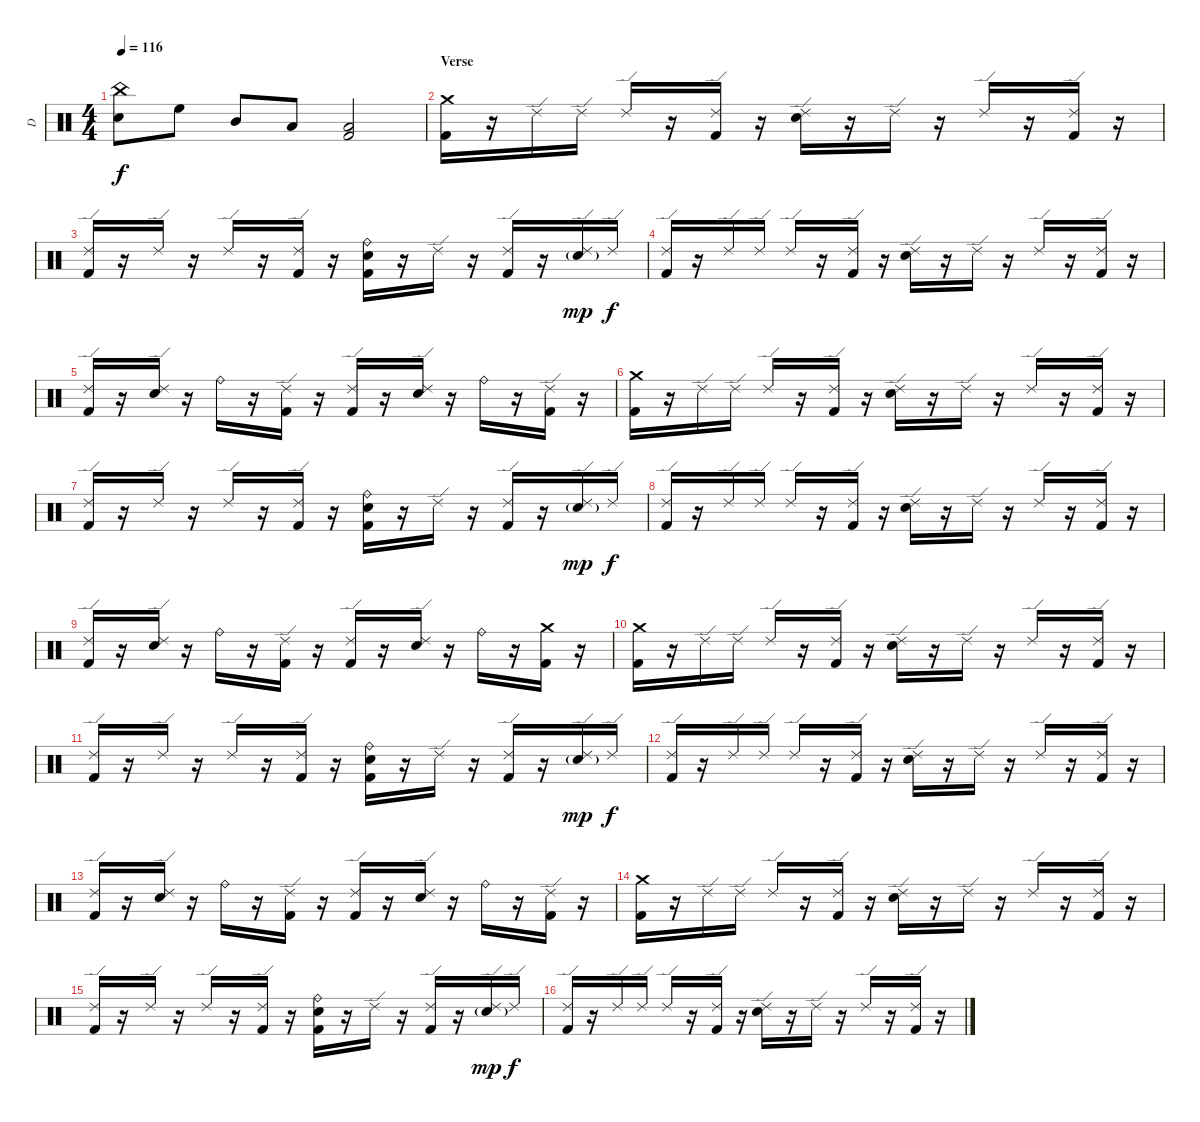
\track ("D" "D") {instrument percussion}
\staff {score}
\articulation defaults
\ts (4 4)
\tempo 116
\clef neutral
\ks c
("China (hit)" "Electric Snare (hit)").8{dy f} "High Floor Tom (hit)".8 "Mid Tom (hit)".8 "Low Tom (hit)".8 ("Low Floor Tom (hit)" "Kick (hit) 2").2 |
\section ("" "Verse")
("Crash medium (hit)" "Kick (hit) 2").16 r.16 "Ride (edge) 2".16 "Ride (edge) 2".16 "Ride (edge) 2".16 r.16 ("Ride (edge) 2" "Kick (hit) 2").16 r.16 ("Ride (edge) 2" "Electric Snare (hit)").16 r.16 "Ride (edge) 2".16 r.16 "Ride (edge) 2".16 r.16 ("Ride (edge) 2" "Kick (hit) 2").16 r.16 |
("Ride (edge) 2" "Kick (hit) 2").16 r.16 "Ride (edge) 2".16 r.16 "Ride (edge) 2".16 r.16 ("Ride (edge) 2" "Kick (hit) 2").16 r.16 ("Ride (bell)" "Electric Snare (hit)" "Kick (hit) 2").16 r.16 "Ride (edge) 2".16 r.16 ("Ride (edge) 2" "Kick (hit) 2").16 r.16 ("Ride (edge) 2" "Electric Snare (hit)"{g}).16{dy mp} "Ride (edge) 2".16{dy f} |
("Ride (edge) 2" "Kick (hit) 2").16 r.16 "Ride (edge) 2".16 "Ride (edge) 2".16 "Ride (edge) 2".16 r.16 ("Ride (edge) 2" "Kick (hit) 2").16 r.16 ("Ride (edge) 2" "Electric Snare (hit)").16 r.16 "Ride (edge) 2".16 r.16 "Ride (edge) 2".16 r.16 ("Ride (edge) 2" "Kick (hit) 2").16 r.16 |
("Ride (edge) 2" "Kick (hit) 2").16 r.16 ("Ride (edge) 2" "Electric Snare (hit)").16 r.16 "Ride (bell)".16 r.16 ("Ride (edge) 2" "Kick (hit) 2").16 r.16 ("Ride (edge) 2" "Kick (hit) 2").16 r.16 ("Ride (edge) 2" "Electric Snare (hit)").16 r.16 "Ride (bell)".16 r.16 ("Ride (edge) 2" "Kick (hit) 2").16 r.16 |
("Crash medium (hit)" "Kick (hit) 2").16 r.16 "Ride (edge) 2".16 "Ride (edge) 2".16 "Ride (edge) 2".16 r.16 ("Ride (edge) 2" "Kick (hit) 2").16 r.16 ("Ride (edge) 2" "Electric Snare (hit)").16 r.16 "Ride (edge) 2".16 r.16 "Ride (edge) 2".16 r.16 ("Ride (edge) 2" "Kick (hit) 2").16 r.16 |
("Ride (edge) 2" "Kick (hit) 2").16 r.16 "Ride (edge) 2".16 r.16 "Ride (edge) 2".16 r.16 ("Ride (edge) 2" "Kick (hit) 2").16 r.16 ("Ride (bell)" "Electric Snare (hit)" "Kick (hit) 2").16 r.16 "Ride (edge) 2".16 r.16 ("Ride (edge) 2" "Kick (hit) 2").16 r.16 ("Ride (edge) 2" "Electric Snare (hit)"{g}).16{dy mp} "Ride (edge) 2".16{dy f} |
("Ride (edge) 2" "Kick (hit) 2").16 r.16 "Ride (edge) 2".16 "Ride (edge) 2".16 "Ride (edge) 2".16 r.16 ("Ride (edge) 2" "Kick (hit) 2").16 r.16 ("Ride (edge) 2" "Electric Snare (hit)").16 r.16 "Ride (edge) 2".16 r.16 "Ride (edge) 2".16 r.16 ("Ride (edge) 2" "Kick (hit) 2").16 r.16 |
("Ride (edge) 2" "Kick (hit) 2").16 r.16 ("Ride (edge) 2" "Electric Snare (hit)").16 r.16 "Ride (bell)".16 r.16 ("Ride (edge) 2" "Kick (hit) 2").16 r.16 ("Ride (edge) 2" "Kick (hit) 2").16 r.16 ("Ride (edge) 2" "Electric Snare (hit)").16 r.16 "Ride (bell)".16 r.16 ("Crash medium (hit)" "Kick (hit) 2").16 r.16 |
("Crash medium (hit)" "Kick (hit) 2").16 r.16 "Ride (edge) 2".16 "Ride (edge) 2".16 "Ride (edge) 2".16 r.16 ("Ride (edge) 2" "Kick (hit) 2").16 r.16 ("Ride (edge) 2" "Electric Snare (hit)").16 r.16 "Ride (edge) 2".16 r.16 "Ride (edge) 2".16 r.16 ("Ride (edge) 2" "Kick (hit) 2").16 r.16 |
("Ride (edge) 2" "Kick (hit) 2").16 r.16 "Ride (edge) 2".16 r.16 "Ride (edge) 2".16 r.16 ("Ride (edge) 2" "Kick (hit) 2").16 r.16 ("Ride (bell)" "Electric Snare (hit)" "Kick (hit) 2").16 r.16 "Ride (edge) 2".16 r.16 ("Ride (edge) 2" "Kick (hit) 2").16 r.16 ("Ride (edge) 2" "Electric Snare (hit)"{g}).16{dy mp} "Ride (edge) 2".16{dy f} |
("Ride (edge) 2" "Kick (hit) 2").16 r.16 "Ride (edge) 2".16 "Ride (edge) 2".16 "Ride (edge) 2".16 r.16 ("Ride (edge) 2" "Kick (hit) 2").16 r.16 ("Ride (edge) 2" "Electric Snare (hit)").16 r.16 "Ride (edge) 2".16 r.16 "Ride (edge) 2".16 r.16 ("Ride (edge) 2" "Kick (hit) 2").16 r.16 |
("Ride (edge) 2" "Kick (hit) 2").16 r.16 ("Ride (edge) 2" "Electric Snare (hit)").16 r.16 "Ride (bell)".16 r.16 ("Ride (edge) 2" "Kick (hit) 2").16 r.16 ("Ride (edge) 2" "Kick (hit) 2").16 r.16 ("Ride (edge) 2" "Electric Snare (hit)").16 r.16 "Ride (bell)".16 r.16 ("Ride (edge) 2" "Kick (hit) 2").16 r.16 |
("Crash medium (hit)" "Kick (hit) 2").16 r.16 "Ride (edge) 2".16 "Ride (edge) 2".16 "Ride (edge) 2".16 r.16 ("Ride (edge) 2" "Kick (hit) 2").16 r.16 ("Ride (edge) 2" "Electric Snare (hit)").16 r.16 "Ride (edge) 2".16 r.16 "Ride (edge) 2".16 r.16 ("Ride (edge) 2" "Kick (hit) 2").16 r.16 |
("Ride (edge) 2" "Kick (hit) 2").16 r.16 "Ride (edge) 2".16 r.16 "Ride (edge) 2".16 r.16 ("Ride (edge) 2" "Kick (hit) 2").16 r.16 ("Ride (bell)" "Electric Snare (hit)" "Kick (hit) 2").16 r.16 "Ride (edge) 2".16 r.16 ("Ride (edge) 2" "Kick (hit) 2").16 r.16 ("Ride (edge) 2" "Electric Snare (hit)"{g}).16{dy mp} "Ride (edge) 2".16{dy f} |
("Ride (edge) 2" "Kick (hit) 2").16 r.16 "Ride (edge) 2".16 "Ride (edge) 2".16 "Ride (edge) 2".16 r.16 ("Ride (edge) 2" "Kick (hit) 2").16 r.16 ("Ride (edge) 2" "Electric Snare (hit)").16 r.16 "Ride (edge) 2".16 r.16 "Ride (edge) 2".16 r.16 ("Ride (edge) 2" "Kick (hit) 2").16 r.16
